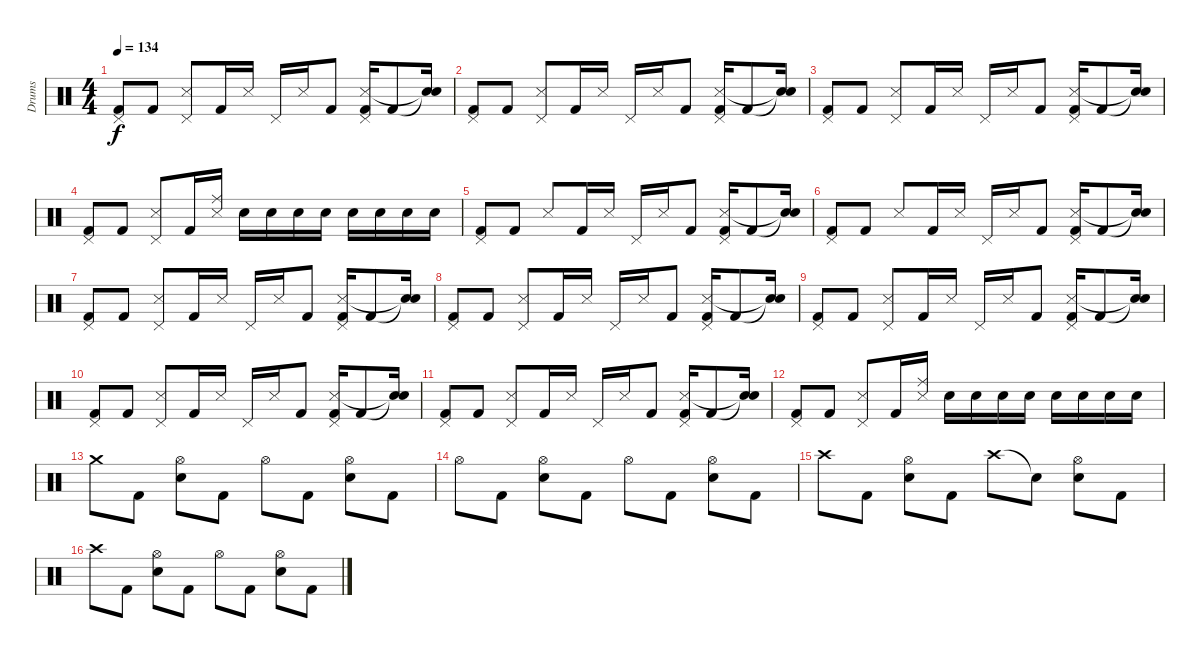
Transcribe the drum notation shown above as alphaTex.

\track ("Drums" "Drums") {instrument percussion}
\staff {score}
\articulation defaults
\ts (4 4)
\tempo 134
\clef neutral
\ks c
("Pedal Hi-Hat (hit)" "Kick (hit) 2").8{dy f} "Kick (hit) 2".8 ("Snare (side stick) 3" "Pedal Hi-Hat (hit)").8 "Kick (hit) 2".16 "Snare (side stick) 3".16 "Pedal Hi-Hat (hit)".16 "Snare (side stick) 3".16 "Kick (hit) 2".8 ("Pedal Hi-Hat (hit)" "Snare (side stick) 3" "Kick (hit) 2").16 "Kick (hit) 2".8 ("Snare (hit)"{t} "Snare (hit)"{t}).16 |
("Pedal Hi-Hat (hit)" "Kick (hit) 2").8 "Kick (hit) 2".8 ("Snare (side stick) 3" "Pedal Hi-Hat (hit)").8 "Kick (hit) 2".16 "Snare (side stick) 3".16 "Pedal Hi-Hat (hit)".16 "Snare (side stick) 3".16 "Kick (hit) 2".8 ("Pedal Hi-Hat (hit)" "Snare (side stick) 3" "Kick (hit) 2").16 "Kick (hit) 2".8 ("Snare (hit)"{t} "Snare (hit)"{t}).16 |
("Pedal Hi-Hat (hit)" "Kick (hit) 2").8 "Kick (hit) 2".8 ("Snare (side stick) 3" "Pedal Hi-Hat (hit)").8 "Kick (hit) 2".16 "Snare (side stick) 3".16 "Pedal Hi-Hat (hit)".16 "Snare (side stick) 3".16 "Kick (hit) 2".8 ("Pedal Hi-Hat (hit)" "Snare (side stick) 3" "Kick (hit) 2").16 "Kick (hit) 2".8 ("Snare (hit)"{t} "Snare (hit)"{t}).16 |
("Pedal Hi-Hat (hit)" "Kick (hit) 2").8 "Kick (hit) 2".8 ("Snare (side stick) 3" "Pedal Hi-Hat (hit)").8 "Kick (hit) 2".16 ("Snare (side stick) 3" "Ride (middle)").16 "Electric Snare (hit)".16 "Electric Snare (hit)".16 "Electric Snare (hit)".16 "Electric Snare (hit)".16 "Electric Snare (hit)".16 "Electric Snare (hit)".16 "Electric Snare (hit)".16 "Electric Snare (hit)".16 |
("Pedal Hi-Hat (hit)" "Kick (hit) 2").8 "Kick (hit) 2".8 "Snare (side stick) 3".8 "Kick (hit) 2".16 "Snare (side stick) 3".16 "Pedal Hi-Hat (hit)".16 "Snare (side stick) 3".16 "Kick (hit) 2".8 ("Pedal Hi-Hat (hit)" "Snare (side stick) 3" "Kick (hit) 2").16 "Kick (hit) 2".8 ("Snare (hit)"{t} "Snare (hit)"{t}).16 |
("Pedal Hi-Hat (hit)" "Kick (hit) 2").8 "Kick (hit) 2".8 "Snare (side stick) 3".8 "Kick (hit) 2".16 "Snare (side stick) 3".16 "Pedal Hi-Hat (hit)".16 "Snare (side stick) 3".16 "Kick (hit) 2".8 ("Pedal Hi-Hat (hit)" "Snare (side stick) 3" "Kick (hit) 2").16 "Kick (hit) 2".8 ("Snare (hit)"{t} "Snare (hit)"{t}).16 |
("Pedal Hi-Hat (hit)" "Kick (hit) 2").8 "Kick (hit) 2".8 ("Snare (side stick) 3" "Pedal Hi-Hat (hit)").8 "Kick (hit) 2".16 "Snare (side stick) 3".16 "Pedal Hi-Hat (hit)".16 "Snare (side stick) 3".16 "Kick (hit) 2".8 ("Pedal Hi-Hat (hit)" "Snare (side stick) 3" "Kick (hit) 2").16 "Kick (hit) 2".8 ("Snare (hit)"{t} "Snare (hit)"{t}).16 |
("Pedal Hi-Hat (hit)" "Kick (hit) 2").8 "Kick (hit) 2".8 ("Snare (side stick) 3" "Pedal Hi-Hat (hit)").8 "Kick (hit) 2".16 "Snare (side stick) 3".16 "Pedal Hi-Hat (hit)".16 "Snare (side stick) 3".16 "Kick (hit) 2".8 ("Pedal Hi-Hat (hit)" "Snare (side stick) 3" "Kick (hit) 2").16 "Kick (hit) 2".8 ("Snare (hit)"{t} "Snare (hit)"{t}).16 |
("Pedal Hi-Hat (hit)" "Kick (hit) 2").8 "Kick (hit) 2".8 ("Snare (side stick) 3" "Pedal Hi-Hat (hit)").8 "Kick (hit) 2".16 "Snare (side stick) 3".16 "Pedal Hi-Hat (hit)".16 "Snare (side stick) 3".16 "Kick (hit) 2".8 ("Pedal Hi-Hat (hit)" "Snare (side stick) 3" "Kick (hit) 2").16 "Kick (hit) 2".8 ("Snare (hit)"{t} "Snare (hit)"{t}).16 |
("Pedal Hi-Hat (hit)" "Kick (hit) 2").8 "Kick (hit) 2".8 ("Snare (side stick) 3" "Pedal Hi-Hat (hit)").8 "Kick (hit) 2".16 "Snare (side stick) 3".16 "Pedal Hi-Hat (hit)".16 "Snare (side stick) 3".16 "Kick (hit) 2".8 ("Pedal Hi-Hat (hit)" "Snare (side stick) 3" "Kick (hit) 2").16 "Kick (hit) 2".8 ("Snare (hit)"{t} "Snare (hit)"{t}).16 |
("Pedal Hi-Hat (hit)" "Kick (hit) 2").8 "Kick (hit) 2".8 ("Snare (side stick) 3" "Pedal Hi-Hat (hit)").8 "Kick (hit) 2".16 "Snare (side stick) 3".16 "Pedal Hi-Hat (hit)".16 "Snare (side stick) 3".16 "Kick (hit) 2".8 ("Pedal Hi-Hat (hit)" "Snare (side stick) 3" "Kick (hit) 2").16 "Kick (hit) 2".8 ("Snare (hit)"{t} "Snare (hit)"{t}).16 |
("Pedal Hi-Hat (hit)" "Kick (hit) 2").8 "Kick (hit) 2".8 ("Snare (side stick) 3" "Pedal Hi-Hat (hit)").8 "Kick (hit) 2".16 ("Snare (side stick) 3" "Ride (middle)").16 "Electric Snare (hit)".16 "Electric Snare (hit)".16 "Electric Snare (hit)".16 "Electric Snare (hit)".16 "Electric Snare (hit)".16 "Electric Snare (hit)".16 "Electric Snare (hit)".16 "Electric Snare (hit)".16 |
"Crash medium (hit)".8 "Kick (hit) 2".8 ("Hi-Hat (open)" "Electric Snare (hit)").8 "Kick (hit) 2".8 "Hi-Hat (open)".8 "Kick (hit) 2".8 ("Hi-Hat (open)" "Electric Snare (hit)").8 "Kick (hit) 2".8 |
"Hi-Hat (open)".8 "Kick (hit) 2".8 ("Hi-Hat (open)" "Electric Snare (hit)").8 "Kick (hit) 2".8 "Hi-Hat (open)".8 "Kick (hit) 2".8 ("Hi-Hat (open)" "Electric Snare (hit)").8 "Kick (hit) 2".8 |
"Crash high (hit)".8 "Kick (hit) 2".8 ("Hi-Hat (open)" "Electric Snare (hit)").8 "Kick (hit) 2".8 "Crash high (hit)".8 "Snare (hit)"{t}.8 ("Hi-Hat (open)" "Electric Snare (hit)").8 "Kick (hit) 2".8 |
"Crash high (hit)".8 "Kick (hit) 2".8 ("Hi-Hat (open)" "Electric Snare (hit)").8 "Kick (hit) 2".8 "Hi-Hat (open)".8 "Kick (hit) 2".8 ("Hi-Hat (open)" "Electric Snare (hit)").8 "Kick (hit) 2".8
